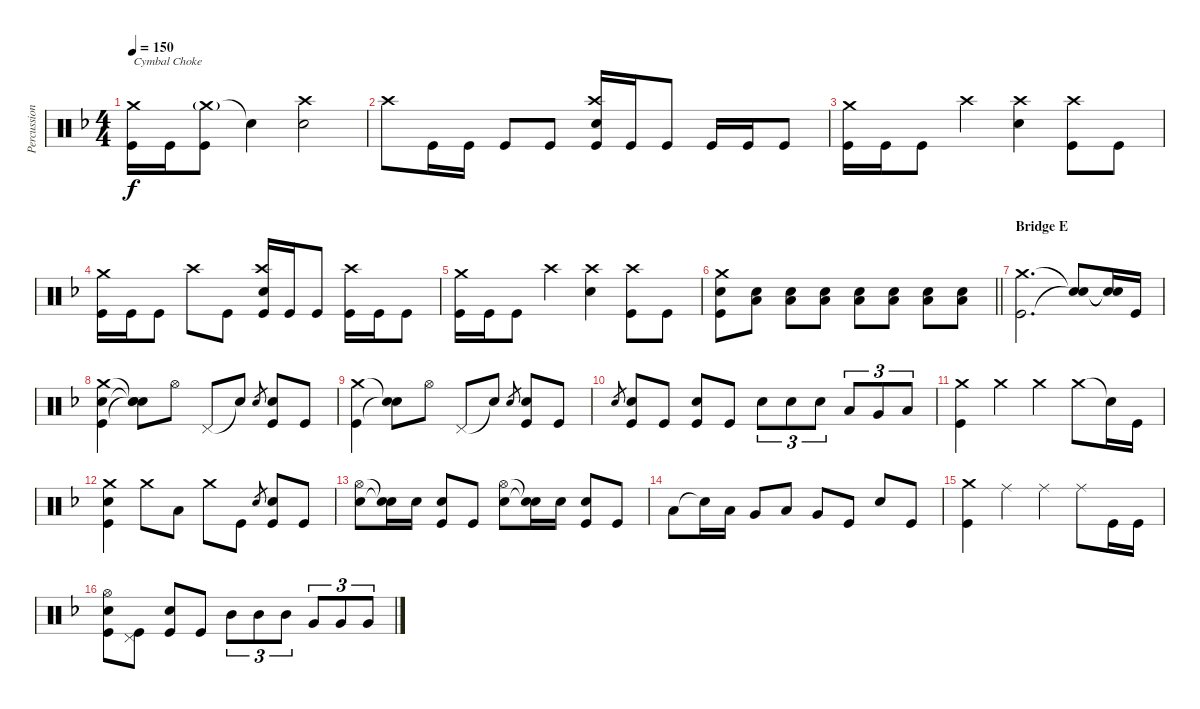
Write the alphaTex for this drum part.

\track ("Percussion" "Percussion") {instrument percussion}
\staff {score}
\articulation defaults
\ts (4 4)
\tempo 150
\clef neutral
\ks f
("Crash medium (hit)" "Kick (hit)").16{txt "Cymbal Choke" dy f} "Kick (hit)".16 ("Crash medium (hit)"{g} "Kick (hit)").8 "Snare (hit)"{t}.4 ("Crash high (hit)" "Electric Snare (hit)").2 |
"Crash high (hit)".8 "Kick (hit)".16 "Kick (hit)".16 "Kick (hit)".8 "Kick (hit)".8 ("Crash high (hit)" "Electric Snare (hit)" "Kick (hit)").16 "Kick (hit)".16 "Kick (hit)".8 "Kick (hit)".16 "Kick (hit)".16 "Kick (hit)".8 |
("Crash medium (hit)" "Kick (hit)").16 "Kick (hit)".16 "Kick (hit)".8 "Crash high (hit)".4 ("Crash high (hit)" "Electric Snare (hit)").4 ("Crash high (hit)" "Kick (hit)").8 "Kick (hit)".8 |
("Crash medium (hit)" "Kick (hit)").16 "Kick (hit)".16 "Kick (hit)".8 "Crash high (hit)".8 "Kick (hit)".8 ("Crash high (hit)" "Electric Snare (hit)" "Kick (hit)").16 "Kick (hit)".16 "Kick (hit)".8 ("Crash high (hit)" "Kick (hit)").16 "Kick (hit)".16 "Kick (hit)".8 |
("Crash medium (hit)" "Kick (hit)").16 "Kick (hit)".16 "Kick (hit)".8 "Crash high (hit)".4 ("Crash high (hit)" "Electric Snare (hit)").4 ("Crash high (hit)" "Kick (hit)").8 "Kick (hit)".8 |
\barLineRight lightlight
("Crash medium (hit)" "Electric Snare (hit)" "Kick (hit)").8 ("Electric Snare (hit)" "Low Floor Tom (hit)").8 ("Electric Snare (hit)" "Low Floor Tom (hit)").8 ("Electric Snare (hit)" "Low Floor Tom (hit)").8 ("Electric Snare (hit)" "Low Floor Tom (hit)").8 ("Electric Snare (hit)" "Low Floor Tom (hit)").8 ("Electric Snare (hit)" "Low Floor Tom (hit)").8 ("Electric Snare (hit)" "Low Floor Tom (hit)").8 |
\section ("" "Bridge E")
("Crash medium (hit)" "Kick (hit)").2{d} ("Snare (hit)"{t} "Snare (hit)"{t}).8 ("Snare (hit)"{t} "Snare (hit)"{t}).16 "Kick (hit)".16 |
("Crash medium (hit)" "Electric Snare (hit)" "Kick (hit)").4 ("Snare (hit)"{t} "Snare (hit)"{t} "Snare (hit)"{t}).8 "Hi-Hat (open)".8 "Pedal Hi-Hat (hit)".8 "Snare (hit)"{t}.8 "Electric Snare (hit)".8{gr} ("Electric Snare (hit)" "Kick (hit)").8 "Kick (hit)".8 |
("Crash medium (hit)" "Kick (hit)").4 ("Snare (hit)"{t} "Snare (hit)"{t}).8 "Hi-Hat (open)".8 "Pedal Hi-Hat (hit)".8 "Snare (hit)"{t}.8 "Electric Snare (hit)".8{gr} ("Electric Snare (hit)" "Kick (hit)").8 "Kick (hit)".8 |
"Electric Snare (hit)".8{gr} ("Electric Snare (hit)" "Kick (hit)").8 "Kick (hit)".8 ("Electric Snare (hit)" "Kick (hit)").8 "Kick (hit)".8 "Electric Snare (hit)".8{tu (3 2)} "Electric Snare (hit)".8{tu (3 2)} "Electric Snare (hit)".8{tu (3 2)} "Low Tom (hit)".8{tu (3 2)} "Very Low Tom (hit)".8{tu (3 2)} "Low Floor Tom (hit)".8{tu (3 2)} |
("Crash medium (hit)" "Kick (hit)").4 "Crash medium (hit)".4 "Crash medium (hit)".4 "Crash medium (hit)".8 "Snare (hit)"{t}.16 "Kick (hit)".16 |
("Crash medium (hit)" "Electric Snare (hit)" "Kick (hit)").4 "Crash medium (hit)".8 "Low Floor Tom (hit)".8 "Crash medium (hit)".8 "Kick (hit)".8 "Electric Snare (hit)".8{gr} ("Electric Snare (hit)" "Kick (hit)").8 "Kick (hit)".8 |
("Hi-Hat (open)" "Electric Snare (hit)").8 ("Snare (hit)"{t} "Snare (hit)"{t}).16 "Electric Snare (hit)".16 ("Electric Snare (hit)" "Kick (hit)").8 "Kick (hit)".8 ("Hi-Hat (open)" "Electric Snare (hit)").8 ("Snare (hit)"{t} "Snare (hit)"{t}).16 "Electric Snare (hit)".16 ("Electric Snare (hit)" "Kick (hit)").8 "Kick (hit)".8 |
"Low Floor Tom (hit)".8 "Snare (hit)"{t}.16 "Low Tom (hit)".16 "Very Low Tom (hit)".8 "Low Floor Tom (hit)".8 "Very Low Tom (hit)".8 "Kick (hit)".8 "Electric Snare (hit)".8 "Kick (hit)".8 |
("Crash medium (hit)" "Kick (hit)").4 "Ride (middle)".4 "Ride (middle)".4 "Ride (middle)".8 "Kick (hit)".16 "Kick (hit)".16 |
("Hi-Hat (open)" "Electric Snare (hit)" "Kick (hit)").8 ("Pedal Hi-Hat (hit)" "Kick (hit)").8 ("Electric Snare (hit)" "Kick (hit)").8 "Kick (hit)".8 "Mid Tom (hit)".8{tu (3 2)} "Mid Tom (hit)".8{tu (3 2)} "Mid Tom (hit)".8{tu (3 2)} "Very Low Tom (hit)".8{tu (3 2)} "Very Low Tom (hit)".8{tu (3 2)} "Very Low Tom (hit)".8{tu (3 2)}
